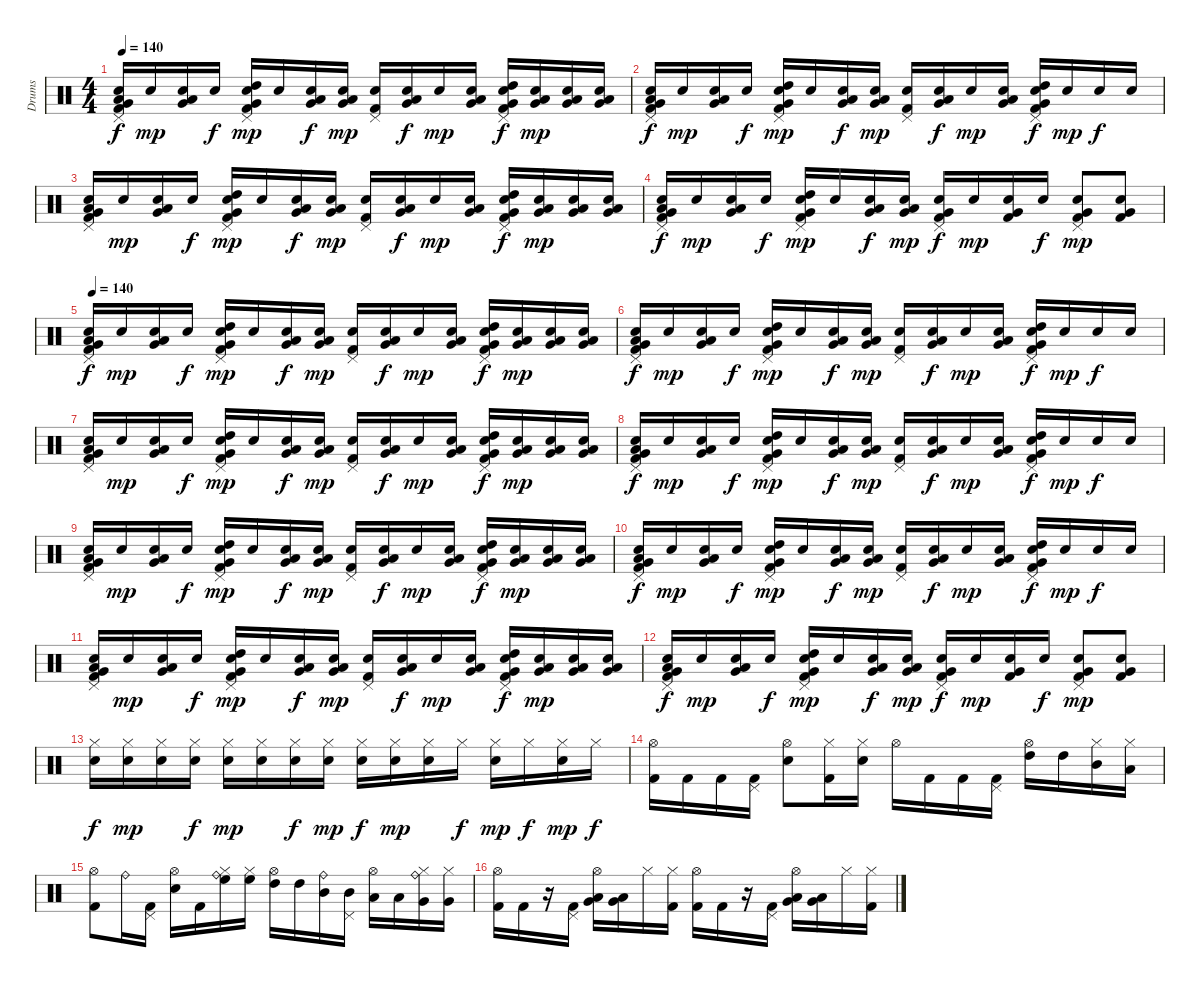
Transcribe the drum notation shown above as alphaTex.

\track ("Drums" "Drums") {instrument percussion}
\staff {score}
\articulation defaults
\ts (4 4)
\tempo 140
\clef neutral
\ks c
("Pedal Hi-Hat (hit)" "Snare (hit) 2" "Low Tom (hit)" "Very Low Tom (hit)" "Kick (hit) 2").16{dy f} "Snare (hit) 2".16{dy mp} ("Snare (hit) 2" "Low Tom (hit)" "Very Low Tom (hit)").16 "Snare (hit) 2".16{dy f} ("Pedal Hi-Hat (hit)" "Snare (hit) 2" "High Tom (hit)" "Very Low Tom (hit)" "Kick (hit) 2").16{dy mp} "Snare (hit) 2".16 ("Snare (hit) 2" "Low Tom (hit)" "Very Low Tom (hit)").16{dy f} ("Snare (hit) 2" "Low Tom (hit)" "Very Low Tom (hit)").16{dy mp} ("Pedal Hi-Hat (hit)" "Snare (hit) 2" "Kick (hit) 2").16 ("Snare (hit) 2" "Low Tom (hit)" "Very Low Tom (hit)").16{dy f} "Snare (hit) 2".16{dy mp} ("Snare (hit) 2" "Low Tom (hit)" "Very Low Tom (hit)").16 ("Pedal Hi-Hat (hit)" "Snare (hit) 2" "High Tom (hit)" "Very Low Tom (hit)" "Kick (hit) 2").16{dy f} ("Snare (hit) 2" "Low Tom (hit)" "Very Low Tom (hit)").16{dy mp} ("Snare (hit) 2" "Low Tom (hit)" "Very Low Tom (hit)").16 ("Snare (hit) 2" "Low Tom (hit)" "Very Low Tom (hit)").16 |
("Pedal Hi-Hat (hit)" "Snare (hit) 2" "Low Tom (hit)" "Very Low Tom (hit)" "Kick (hit) 2").16{dy f} "Snare (hit) 2".16{dy mp} ("Snare (hit) 2" "Low Tom (hit)" "Very Low Tom (hit)").16 "Snare (hit) 2".16{dy f} ("Pedal Hi-Hat (hit)" "Snare (hit) 2" "High Tom (hit)" "Very Low Tom (hit)" "Kick (hit) 2").16{dy mp} "Snare (hit) 2".16 ("Snare (hit) 2" "Low Tom (hit)" "Very Low Tom (hit)").16{dy f} ("Snare (hit) 2" "Low Tom (hit)" "Very Low Tom (hit)").16{dy mp} ("Pedal Hi-Hat (hit)" "Snare (hit) 2" "Kick (hit) 2").16 ("Snare (hit) 2" "Low Tom (hit)" "Very Low Tom (hit)").16{dy f} "Snare (hit) 2".16{dy mp} ("Snare (hit) 2" "Low Tom (hit)" "Very Low Tom (hit)").16 ("Pedal Hi-Hat (hit)" "Snare (hit) 2" "High Tom (hit)" "Very Low Tom (hit)" "Kick (hit) 2").16{dy f} "Snare (hit) 2".16{dy mp} "Snare (hit) 2".16{dy f} "Snare (hit) 2".16 |
("Pedal Hi-Hat (hit)" "Snare (hit) 2" "Low Tom (hit)" "Very Low Tom (hit)" "Kick (hit) 2").16 "Snare (hit) 2".16{dy mp} ("Snare (hit) 2" "Low Tom (hit)" "Very Low Tom (hit)").16 "Snare (hit) 2".16{dy f} ("Pedal Hi-Hat (hit)" "Snare (hit) 2" "High Tom (hit)" "Very Low Tom (hit)" "Kick (hit) 2").16{dy mp} "Snare (hit) 2".16 ("Snare (hit) 2" "Low Tom (hit)" "Very Low Tom (hit)").16{dy f} ("Snare (hit) 2" "Low Tom (hit)" "Very Low Tom (hit)").16{dy mp} ("Pedal Hi-Hat (hit)" "Snare (hit) 2" "Kick (hit) 2").16 ("Snare (hit) 2" "Low Tom (hit)" "Very Low Tom (hit)").16{dy f} "Snare (hit) 2".16{dy mp} ("Snare (hit) 2" "Low Tom (hit)" "Very Low Tom (hit)").16 ("Pedal Hi-Hat (hit)" "Snare (hit) 2" "High Tom (hit)" "Very Low Tom (hit)" "Kick (hit) 2").16{dy f} ("Snare (hit) 2" "Low Tom (hit)" "Very Low Tom (hit)").16{dy mp} ("Snare (hit) 2" "Low Tom (hit)" "Very Low Tom (hit)").16 ("Snare (hit) 2" "Low Tom (hit)" "Very Low Tom (hit)").16 |
("Pedal Hi-Hat (hit)" "Snare (hit) 2" "Low Tom (hit)" "Very Low Tom (hit)" "Kick (hit) 2").16{dy f} "Snare (hit) 2".16{dy mp} ("Snare (hit) 2" "Low Tom (hit)" "Very Low Tom (hit)").16 "Snare (hit) 2".16{dy f} ("Pedal Hi-Hat (hit)" "Snare (hit) 2" "High Tom (hit)" "Very Low Tom (hit)" "Kick (hit) 2").16{dy mp} "Snare (hit) 2".16 ("Snare (hit) 2" "Low Tom (hit)" "Very Low Tom (hit)").16{dy f} ("Snare (hit) 2" "Low Tom (hit)" "Very Low Tom (hit)").16{dy mp} ("Pedal Hi-Hat (hit)" "Snare (hit) 2" "Very Low Tom (hit)" "Kick (hit) 2").16{dy f} "Snare (hit) 2".16{dy mp} ("Snare (hit) 2" "Very Low Tom (hit)" "Kick (hit) 2").16 "Snare (hit) 2".16{dy f} ("Pedal Hi-Hat (hit)" "Snare (hit) 2" "Very Low Tom (hit)" "Kick (hit) 2").8{dy mp} ("Snare (hit) 2" "Very Low Tom (hit)" "Kick (hit) 2").8 |
\tempo 140
("Pedal Hi-Hat (hit)" "Snare (hit) 2" "Low Tom (hit)" "Very Low Tom (hit)" "Kick (hit) 2").16{dy f} "Snare (hit) 2".16{dy mp} ("Snare (hit) 2" "Low Tom (hit)" "Very Low Tom (hit)").16 "Snare (hit) 2".16{dy f} ("Pedal Hi-Hat (hit)" "Snare (hit) 2" "High Tom (hit)" "Very Low Tom (hit)" "Kick (hit) 2").16{dy mp} "Snare (hit) 2".16 ("Snare (hit) 2" "Low Tom (hit)" "Very Low Tom (hit)").16{dy f} ("Snare (hit) 2" "Low Tom (hit)" "Very Low Tom (hit)").16{dy mp} ("Pedal Hi-Hat (hit)" "Snare (hit) 2" "Kick (hit) 2").16 ("Snare (hit) 2" "Low Tom (hit)" "Very Low Tom (hit)").16{dy f} "Snare (hit) 2".16{dy mp} ("Snare (hit) 2" "Low Tom (hit)" "Very Low Tom (hit)").16 ("Pedal Hi-Hat (hit)" "Snare (hit) 2" "High Tom (hit)" "Very Low Tom (hit)" "Kick (hit) 2").16{dy f} ("Snare (hit) 2" "Low Tom (hit)" "Very Low Tom (hit)").16{dy mp} ("Snare (hit) 2" "Low Tom (hit)" "Very Low Tom (hit)").16 ("Snare (hit) 2" "Low Tom (hit)" "Very Low Tom (hit)").16 |
("Pedal Hi-Hat (hit)" "Snare (hit) 2" "Low Tom (hit)" "Very Low Tom (hit)" "Kick (hit) 2").16{dy f} "Snare (hit) 2".16{dy mp} ("Snare (hit) 2" "Low Tom (hit)" "Very Low Tom (hit)").16 "Snare (hit) 2".16{dy f} ("Pedal Hi-Hat (hit)" "Snare (hit) 2" "High Tom (hit)" "Very Low Tom (hit)" "Kick (hit) 2").16{dy mp} "Snare (hit) 2".16 ("Snare (hit) 2" "Low Tom (hit)" "Very Low Tom (hit)").16{dy f} ("Snare (hit) 2" "Low Tom (hit)" "Very Low Tom (hit)").16{dy mp} ("Pedal Hi-Hat (hit)" "Snare (hit) 2" "Kick (hit) 2").16 ("Snare (hit) 2" "Low Tom (hit)" "Very Low Tom (hit)").16{dy f} "Snare (hit) 2".16{dy mp} ("Snare (hit) 2" "Low Tom (hit)" "Very Low Tom (hit)").16 ("Pedal Hi-Hat (hit)" "Snare (hit) 2" "High Tom (hit)" "Very Low Tom (hit)" "Kick (hit) 2").16{dy f} "Snare (hit) 2".16{dy mp} "Snare (hit) 2".16{dy f} "Snare (hit) 2".16 |
("Pedal Hi-Hat (hit)" "Snare (hit) 2" "Low Tom (hit)" "Very Low Tom (hit)" "Kick (hit) 2").16 "Snare (hit) 2".16{dy mp} ("Snare (hit) 2" "Low Tom (hit)" "Very Low Tom (hit)").16 "Snare (hit) 2".16{dy f} ("Pedal Hi-Hat (hit)" "Snare (hit) 2" "High Tom (hit)" "Very Low Tom (hit)" "Kick (hit) 2").16{dy mp} "Snare (hit) 2".16 ("Snare (hit) 2" "Low Tom (hit)" "Very Low Tom (hit)").16{dy f} ("Snare (hit) 2" "Low Tom (hit)" "Very Low Tom (hit)").16{dy mp} ("Pedal Hi-Hat (hit)" "Snare (hit) 2" "Kick (hit) 2").16 ("Snare (hit) 2" "Low Tom (hit)" "Very Low Tom (hit)").16{dy f} "Snare (hit) 2".16{dy mp} ("Snare (hit) 2" "Low Tom (hit)" "Very Low Tom (hit)").16 ("Pedal Hi-Hat (hit)" "Snare (hit) 2" "High Tom (hit)" "Very Low Tom (hit)" "Kick (hit) 2").16{dy f} ("Snare (hit) 2" "Low Tom (hit)" "Very Low Tom (hit)").16{dy mp} ("Snare (hit) 2" "Low Tom (hit)" "Very Low Tom (hit)").16 ("Snare (hit) 2" "Low Tom (hit)" "Very Low Tom (hit)").16 |
("Pedal Hi-Hat (hit)" "Snare (hit) 2" "Low Tom (hit)" "Very Low Tom (hit)" "Kick (hit) 2").16{dy f} "Snare (hit) 2".16{dy mp} ("Snare (hit) 2" "Low Tom (hit)" "Very Low Tom (hit)").16 "Snare (hit) 2".16{dy f} ("Pedal Hi-Hat (hit)" "Snare (hit) 2" "High Tom (hit)" "Very Low Tom (hit)" "Kick (hit) 2").16{dy mp} "Snare (hit) 2".16 ("Snare (hit) 2" "Low Tom (hit)" "Very Low Tom (hit)").16{dy f} ("Snare (hit) 2" "Low Tom (hit)" "Very Low Tom (hit)").16{dy mp} ("Pedal Hi-Hat (hit)" "Snare (hit) 2" "Kick (hit) 2").16 ("Snare (hit) 2" "Low Tom (hit)" "Very Low Tom (hit)").16{dy f} "Snare (hit) 2".16{dy mp} ("Snare (hit) 2" "Low Tom (hit)" "Very Low Tom (hit)").16 ("Pedal Hi-Hat (hit)" "Snare (hit) 2" "High Tom (hit)" "Very Low Tom (hit)" "Kick (hit) 2").16{dy f} "Snare (hit) 2".16{dy mp} "Snare (hit) 2".16{dy f} "Snare (hit) 2".16 |
("Pedal Hi-Hat (hit)" "Snare (hit) 2" "Low Tom (hit)" "Very Low Tom (hit)" "Kick (hit) 2").16 "Snare (hit) 2".16{dy mp} ("Snare (hit) 2" "Low Tom (hit)" "Very Low Tom (hit)").16 "Snare (hit) 2".16{dy f} ("Pedal Hi-Hat (hit)" "Snare (hit) 2" "High Tom (hit)" "Very Low Tom (hit)" "Kick (hit) 2").16{dy mp} "Snare (hit) 2".16 ("Snare (hit) 2" "Low Tom (hit)" "Very Low Tom (hit)").16{dy f} ("Snare (hit) 2" "Low Tom (hit)" "Very Low Tom (hit)").16{dy mp} ("Pedal Hi-Hat (hit)" "Snare (hit) 2" "Kick (hit) 2").16 ("Snare (hit) 2" "Low Tom (hit)" "Very Low Tom (hit)").16{dy f} "Snare (hit) 2".16{dy mp} ("Snare (hit) 2" "Low Tom (hit)" "Very Low Tom (hit)").16 ("Pedal Hi-Hat (hit)" "Snare (hit) 2" "High Tom (hit)" "Very Low Tom (hit)" "Kick (hit) 2").16{dy f} ("Snare (hit) 2" "Low Tom (hit)" "Very Low Tom (hit)").16{dy mp} ("Snare (hit) 2" "Low Tom (hit)" "Very Low Tom (hit)").16 ("Snare (hit) 2" "Low Tom (hit)" "Very Low Tom (hit)").16 |
("Pedal Hi-Hat (hit)" "Snare (hit) 2" "Low Tom (hit)" "Very Low Tom (hit)" "Kick (hit) 2").16{dy f} "Snare (hit) 2".16{dy mp} ("Snare (hit) 2" "Low Tom (hit)" "Very Low Tom (hit)").16 "Snare (hit) 2".16{dy f} ("Pedal Hi-Hat (hit)" "Snare (hit) 2" "High Tom (hit)" "Very Low Tom (hit)" "Kick (hit) 2").16{dy mp} "Snare (hit) 2".16 ("Snare (hit) 2" "Low Tom (hit)" "Very Low Tom (hit)").16{dy f} ("Snare (hit) 2" "Low Tom (hit)" "Very Low Tom (hit)").16{dy mp} ("Pedal Hi-Hat (hit)" "Snare (hit) 2" "Kick (hit) 2").16 ("Snare (hit) 2" "Low Tom (hit)" "Very Low Tom (hit)").16{dy f} "Snare (hit) 2".16{dy mp} ("Snare (hit) 2" "Low Tom (hit)" "Very Low Tom (hit)").16 ("Pedal Hi-Hat (hit)" "Snare (hit) 2" "High Tom (hit)" "Very Low Tom (hit)" "Kick (hit) 2").16{dy f} "Snare (hit) 2".16{dy mp} "Snare (hit) 2".16{dy f} "Snare (hit) 2".16 |
("Pedal Hi-Hat (hit)" "Snare (hit) 2" "Low Tom (hit)" "Very Low Tom (hit)" "Kick (hit) 2").16 "Snare (hit) 2".16{dy mp} ("Snare (hit) 2" "Low Tom (hit)" "Very Low Tom (hit)").16 "Snare (hit) 2".16{dy f} ("Pedal Hi-Hat (hit)" "Snare (hit) 2" "High Tom (hit)" "Very Low Tom (hit)" "Kick (hit) 2").16{dy mp} "Snare (hit) 2".16 ("Snare (hit) 2" "Low Tom (hit)" "Very Low Tom (hit)").16{dy f} ("Snare (hit) 2" "Low Tom (hit)" "Very Low Tom (hit)").16{dy mp} ("Pedal Hi-Hat (hit)" "Snare (hit) 2" "Kick (hit) 2").16 ("Snare (hit) 2" "Low Tom (hit)" "Very Low Tom (hit)").16{dy f} "Snare (hit) 2".16{dy mp} ("Snare (hit) 2" "Low Tom (hit)" "Very Low Tom (hit)").16 ("Pedal Hi-Hat (hit)" "Snare (hit) 2" "High Tom (hit)" "Very Low Tom (hit)" "Kick (hit) 2").16{dy f} ("Snare (hit) 2" "Low Tom (hit)" "Very Low Tom (hit)").16{dy mp} ("Snare (hit) 2" "Low Tom (hit)" "Very Low Tom (hit)").16 ("Snare (hit) 2" "Low Tom (hit)" "Very Low Tom (hit)").16 |
("Pedal Hi-Hat (hit)" "Snare (hit) 2" "Low Tom (hit)" "Very Low Tom (hit)" "Kick (hit) 2").16{dy f} "Snare (hit) 2".16{dy mp} ("Snare (hit) 2" "Low Tom (hit)" "Very Low Tom (hit)").16 "Snare (hit) 2".16{dy f} ("Pedal Hi-Hat (hit)" "Snare (hit) 2" "High Tom (hit)" "Very Low Tom (hit)" "Kick (hit) 2").16{dy mp} "Snare (hit) 2".16 ("Snare (hit) 2" "Low Tom (hit)" "Very Low Tom (hit)").16{dy f} ("Snare (hit) 2" "Low Tom (hit)" "Very Low Tom (hit)").16{dy mp} ("Pedal Hi-Hat (hit)" "Snare (hit) 2" "Very Low Tom (hit)" "Kick (hit) 2").16{dy f} "Snare (hit) 2".16{dy mp} ("Snare (hit) 2" "Very Low Tom (hit)" "Kick (hit) 2").16 "Snare (hit) 2".16{dy f} ("Pedal Hi-Hat (hit)" "Snare (hit) 2" "Very Low Tom (hit)" "Kick (hit) 2").8{dy mp} ("Snare (hit) 2" "Very Low Tom (hit)" "Kick (hit) 2").8 |
("Snare (hit) 2" "Hi-Hat (closed)").16{dy f} ("Snare (hit) 2" "Hi-Hat (closed)").16{dy mp} ("Snare (hit) 2" "Hi-Hat (closed)").16 ("Snare (hit) 2" "Hi-Hat (closed)").16{dy f} ("Snare (hit) 2" "Hi-Hat (closed)").16{dy mp} ("Snare (hit) 2" "Hi-Hat (closed)").16 ("Snare (hit) 2" "Hi-Hat (closed)").16{dy f} ("Snare (hit) 2" "Hi-Hat (closed)").16{dy mp} ("Snare (hit) 2" "Hi-Hat (closed)").16{dy f} ("Snare (hit) 2" "Hi-Hat (closed)").16{dy mp} ("Snare (hit) 2" "Hi-Hat (closed)").16 "Hi-Hat (closed)".16{dy f} ("Snare (hit) 2" "Hi-Hat (closed)").16{dy mp} "Hi-Hat (closed)".16{dy f} ("Snare (hit) 2" "Hi-Hat (closed)").16{dy mp} "Hi-Hat (closed)".16{dy f} |
("Hi-Hat (open)" "Kick (hit) 2").16 "Kick (hit) 2".16 "Kick (hit) 2".16 ("Pedal Hi-Hat (hit)" "Kick (hit) 2").16 ("Hi-Hat (open)" "Snare (hit) 2").8 ("Hi-Hat (closed)" "Kick (hit) 2").16 ("Hi-Hat (closed)" "Snare (hit) 2").16 "Hi-Hat (open)".16 "Kick (hit) 2".16 "Kick (hit) 2".16 ("Pedal Hi-Hat (hit)" "Kick (hit) 2").16 ("Hi-Hat (open)" "High Tom (hit)").16 "High Tom (hit)".16 ("Hi-Hat (closed)" "Mid Tom (hit)").16 ("Hi-Hat (closed)" "Low Tom (hit)").16 |
("Hi-Hat (open)" "Kick (hit) 2").8 "Ride (bell)".16 ("Pedal Hi-Hat (hit)" "Kick (hit) 2").16 ("Electric Snare (hit)" "Hi-Hat (open)").16 "Kick (hit) 2".16 ("Ride (bell)" "High Floor Tom (hit)" "Hi-Hat (closed)").16 ("High Floor Tom (hit)" "Hi-Hat (closed)").16 ("High Tom (hit)" "Hi-Hat (open)").16 "High Tom (hit)".16 ("Ride (bell)" "Mid Tom (hit)").16 ("Mid Tom (hit)" "Pedal Hi-Hat (hit)").16 ("Low Tom (hit)" "Hi-Hat (open)").16 "Low Tom (hit)".16 ("Ride (bell)" "Very Low Tom (hit)" "Hi-Hat (closed)").16 ("Very Low Tom (hit)" "Hi-Hat (closed)").16 |
("Hi-Hat (open)" "Kick (hit) 2").16 "Kick (hit) 2".16 r.16 ("Pedal Hi-Hat (hit)" "Kick (hit) 2").16 ("Hi-Hat (open)" "Low Tom (hit)" "Very Low Tom (hit)").16 ("Low Tom (hit)" "Very Low Tom (hit)").16 "Hi-Hat (closed)".16 ("Hi-Hat (closed)" "Kick (hit) 2").16 ("Hi-Hat (open)" "Kick (hit) 2").16 "Kick (hit) 2".16 r.16 ("Pedal Hi-Hat (hit)" "Kick (hit) 2").16 ("Hi-Hat (open)" "Low Tom (hit)" "Very Low Tom (hit)").16 ("Low Tom (hit)" "Very Low Tom (hit)").16 "Hi-Hat (closed)".16 ("Hi-Hat (closed)" "Kick (hit) 2").16
